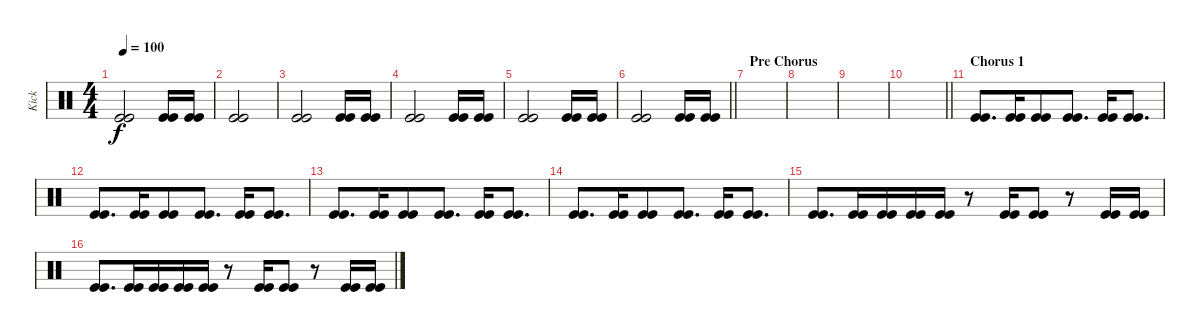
\track ("Kick" "Kick") {instrument percussion}
\staff {score}
\articulation defaults
\ts (4 4)
\tempo 100
\clef neutral
\ks c
("Kick (hit)" "Kick (hit)").2{dy f beam merge} ("Kick (hit)" "Kick (hit)").16 ("Kick (hit)" "Kick (hit)").16 |
("Kick (hit)" "Kick (hit)").2 |
("Kick (hit)" "Kick (hit)").2{beam merge} ("Kick (hit)" "Kick (hit)").16 ("Kick (hit)" "Kick (hit)").16 |
("Kick (hit)" "Kick (hit)").2{beam merge} ("Kick (hit)" "Kick (hit)").16 ("Kick (hit)" "Kick (hit)").16 |
("Kick (hit)" "Kick (hit)").2{beam merge} ("Kick (hit)" "Kick (hit)").16 ("Kick (hit)" "Kick (hit)").16 |
\barLineRight lightlight
("Kick (hit)" "Kick (hit)").2{beam merge} ("Kick (hit)" "Kick (hit)").16 ("Kick (hit)" "Kick (hit)").16 |
\section ("" "Pre Chorus")
|
|
|
\barLineRight lightlight
|
\section ("" "Chorus 1")
("Kick (hit)" "Kick (hit)").8{d} ("Kick (hit)" "Kick (hit)").16{beam merge} ("Kick (hit)" "Kick (hit)").8{beam merge} ("Kick (hit)" "Kick (hit)").8{d} ("Kick (hit)" "Kick (hit)").16{beam merge} ("Kick (hit)" "Kick (hit)").8{d} |
("Kick (hit)" "Kick (hit)").8{d} ("Kick (hit)" "Kick (hit)").16{beam merge} ("Kick (hit)" "Kick (hit)").8{beam merge} ("Kick (hit)" "Kick (hit)").8{d} ("Kick (hit)" "Kick (hit)").16{beam merge} ("Kick (hit)" "Kick (hit)").8{d} |
("Kick (hit)" "Kick (hit)").8{d} ("Kick (hit)" "Kick (hit)").16{beam merge} ("Kick (hit)" "Kick (hit)").8{beam merge} ("Kick (hit)" "Kick (hit)").8{d} ("Kick (hit)" "Kick (hit)").16{beam merge} ("Kick (hit)" "Kick (hit)").8{d} |
("Kick (hit)" "Kick (hit)").8{d} ("Kick (hit)" "Kick (hit)").16{beam merge} ("Kick (hit)" "Kick (hit)").8{beam merge} ("Kick (hit)" "Kick (hit)").8{d} ("Kick (hit)" "Kick (hit)").16{beam merge} ("Kick (hit)" "Kick (hit)").8{d} |
("Kick (hit)" "Kick (hit)").8{d} ("Kick (hit)" "Kick (hit)").16{beam merge} ("Kick (hit)" "Kick (hit)").16{beam merge} ("Kick (hit)" "Kick (hit)").16 ("Kick (hit)" "Kick (hit)").16 r.8{beam merge} ("Kick (hit)" "Kick (hit)").16 ("Kick (hit)" "Kick (hit)").8 r.8{beam merge} ("Kick (hit)" "Kick (hit)").16{beam merge} ("Kick (hit)" "Kick (hit)").16 |
("Kick (hit)" "Kick (hit)").8{d} ("Kick (hit)" "Kick (hit)").16{beam merge} ("Kick (hit)" "Kick (hit)").16{beam merge} ("Kick (hit)" "Kick (hit)").16 ("Kick (hit)" "Kick (hit)").16 r.8{beam merge} ("Kick (hit)" "Kick (hit)").16 ("Kick (hit)" "Kick (hit)").8 r.8{beam merge} ("Kick (hit)" "Kick (hit)").16{beam merge} ("Kick (hit)" "Kick (hit)").16
